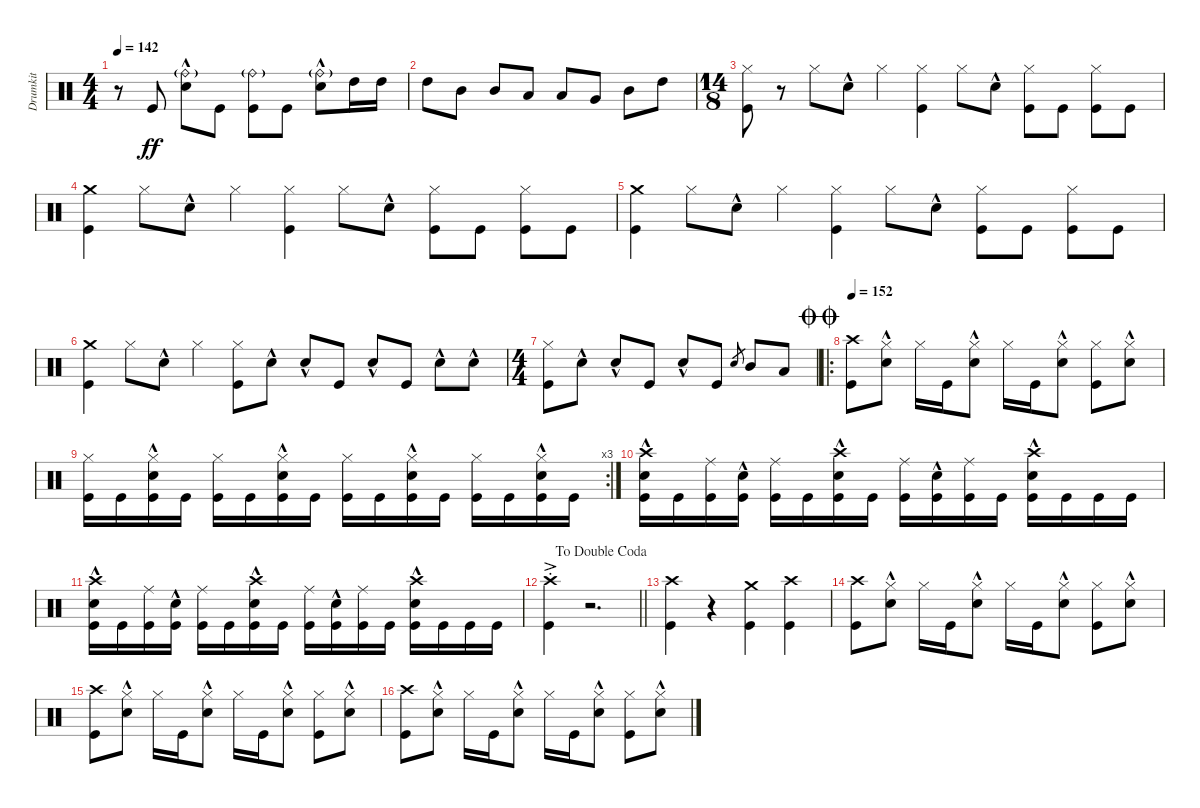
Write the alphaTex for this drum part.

\track ("Drumkit" "Drumkit") {instrument percussion}
\staff {score}
\articulation defaults
\ts (4 4)
\tempo 142
\clef neutral
\ks c
r.8{dy ff} "Kick (hit)".8 ("Snare (hit) 2"{hac} "Ride (bell)"{g}).8 "Kick (hit)".8 ("Kick (hit)" "Ride (bell)"{g}).8 "Kick (hit)".8 ("Snare (hit) 2"{hac} "Ride (bell)"{g}).8 "High Tom (hit)".16 "High Tom (hit)".16 |
"High Tom (hit)".8 "Mid Tom (hit)".8 "Mid Tom (hit)".8 "Low Tom (hit)".8 "Low Tom (hit)".8 "Very Low Tom (hit)".8 "Mid Tom (hit)".8 "High Tom (hit)".8 |
\ts (14 8)
("Hi-Hat (closed)" "Kick (hit)").8 r.8 "Hi-Hat (closed)".8 "Snare (hit) 2"{hac}.8 "Hi-Hat (closed)".4 ("Hi-Hat (closed)" "Kick (hit)").4 "Hi-Hat (closed)".8 "Snare (hit) 2"{hac}.8 ("Hi-Hat (closed)" "Kick (hit)").8 "Kick (hit)".8 ("Hi-Hat (closed)" "Kick (hit)").8 "Kick (hit)".8 |
("Crash medium (hit)" "Kick (hit)").4 "Hi-Hat (closed)".8 "Snare (hit) 2"{hac}.8 "Hi-Hat (closed)".4 ("Hi-Hat (closed)" "Kick (hit)").4 "Hi-Hat (closed)".8 "Snare (hit) 2"{hac}.8 ("Hi-Hat (closed)" "Kick (hit)").8 "Kick (hit)".8 ("Hi-Hat (closed)" "Kick (hit)").8 "Kick (hit)".8 |
("Crash medium (hit)" "Kick (hit)").4 "Hi-Hat (closed)".8 "Snare (hit) 2"{hac}.8 "Hi-Hat (closed)".4 ("Hi-Hat (closed)" "Kick (hit)").4 "Hi-Hat (closed)".8 "Snare (hit) 2"{hac}.8 ("Hi-Hat (closed)" "Kick (hit)").8 "Kick (hit)".8 ("Hi-Hat (closed)" "Kick (hit)").8 "Kick (hit)".8 |
("Crash medium (hit)" "Kick (hit)").4 "Hi-Hat (closed)".8 "Snare (hit) 2"{hac}.8 "Hi-Hat (closed)".4 ("Hi-Hat (closed)" "Kick (hit)").8 "Snare (hit) 2"{hac}.8 "Snare (hit) 2"{hac}.8 "Kick (hit)".8 "Snare (hit) 2"{hac}.8 "Kick (hit)".8 "Snare (hit) 2"{hac}.8 "Snare (hit) 2"{hac}.8 |
\ts (4 4)
("Hi-Hat (closed)" "Kick (hit)").8 "Snare (hit) 2"{hac}.8 "Snare (hit) 2"{hac}.8 "Kick (hit)".8 "Snare (hit) 2"{hac}.8 "Kick (hit)".8 "Snare (hit)".8{gr} "Mid Tom (hit)".8 "Low Tom (hit)".8 |
\ro
\jump doublecoda
\tempo 152
("Kick (hit)" "Crash high (hit)").8 ("Snare (hit) 2"{hac} "Hi-Hat (closed)").8 "Hi-Hat (closed)".16 "Kick (hit)".16 ("Snare (hit) 2"{hac} "Hi-Hat (closed)").8 "Hi-Hat (closed)".16 "Kick (hit)".16 ("Snare (hit) 2"{hac} "Hi-Hat (closed)").8 ("Kick (hit)" "Hi-Hat (closed)").8 ("Snare (hit) 2"{hac} "Hi-Hat (closed)").8 |
\rc 3
("Kick (hit)" "Hi-Hat (closed)").16 "Kick (hit)".16 ("Kick (hit)" "Hi-Hat (closed)" "Snare (hit) 2"{hac}).16 "Kick (hit)".16 ("Kick (hit)" "Hi-Hat (closed)").16 "Kick (hit)".16 ("Kick (hit)" "Hi-Hat (closed)" "Snare (hit) 2"{hac}).16 "Kick (hit)".16 ("Kick (hit)" "Hi-Hat (closed)").16 "Kick (hit)".16 ("Kick (hit)" "Hi-Hat (closed)" "Snare (hit) 2"{hac}).16 "Kick (hit)".16 ("Kick (hit)" "Hi-Hat (closed)").16 "Kick (hit)".16 ("Kick (hit)" "Hi-Hat (closed)" "Snare (hit) 2"{hac}).16 "Kick (hit)".16 |
("Kick (hit)" "Snare (hit) 2"{hac} "Crash high (hit)").16 "Kick (hit)".16 ("Kick (hit)" "Ride (middle)").16 ("Kick (hit)" "Snare (hit) 2"{hac}).16 ("Kick (hit)" "Ride (middle)").16 "Kick (hit)".16 ("Kick (hit)" "Crash high (hit)" "Snare (hit) 2"{hac}).16 "Kick (hit)".16 ("Kick (hit)" "Ride (middle)").16 ("Kick (hit)" "Snare (hit) 2"{hac}).16 ("Kick (hit)" "Ride (middle)").16 "Kick (hit)".16 ("Kick (hit)" "Snare (hit) 2"{hac} "Crash high (hit)").16 "Kick (hit)".16 "Kick (hit)".16 "Kick (hit)".16 |
("Kick (hit)" "Snare (hit) 2"{hac} "Crash high (hit)").16 "Kick (hit)".16 ("Kick (hit)" "Ride (middle)").16 ("Kick (hit)" "Snare (hit) 2"{hac}).16 ("Kick (hit)" "Ride (middle)").16 "Kick (hit)".16 ("Kick (hit)" "Crash high (hit)" "Snare (hit) 2"{hac}).16 "Kick (hit)".16 ("Kick (hit)" "Ride (middle)").16 ("Kick (hit)" "Snare (hit) 2"{hac}).16 ("Kick (hit)" "Ride (middle)").16 "Kick (hit)".16 ("Kick (hit)" "Snare (hit) 2"{hac} "Crash high (hit)").16 "Kick (hit)".16 "Kick (hit)".16 "Kick (hit)".16 |
\jump dadoublecoda
\barLineRight lightlight
("Kick (hit)" "Crash high (hit)"{ac st}).4 r.2{d} |
("Kick (hit)" "Crash high (hit)").4 r.4 ("Kick (hit)" "Crash medium (hit)").4 ("Kick (hit)" "Crash high (hit)").4 |
("Kick (hit)" "Crash high (hit)").8 ("Snare (hit) 2"{hac} "Hi-Hat (closed)").8 "Hi-Hat (closed)".16 "Kick (hit)".16 ("Snare (hit) 2"{hac} "Hi-Hat (closed)").8 "Hi-Hat (closed)".16 "Kick (hit)".16 ("Snare (hit) 2"{hac} "Hi-Hat (closed)").8 ("Kick (hit)" "Hi-Hat (closed)").8 ("Snare (hit) 2"{hac} "Hi-Hat (closed)").8 |
("Kick (hit)" "Crash high (hit)").8 ("Snare (hit) 2"{hac} "Hi-Hat (closed)").8 "Hi-Hat (closed)".16 "Kick (hit)".16 ("Snare (hit) 2"{hac} "Hi-Hat (closed)").8 "Hi-Hat (closed)".16 "Kick (hit)".16 ("Snare (hit) 2"{hac} "Hi-Hat (closed)").8 ("Kick (hit)" "Hi-Hat (closed)").8 ("Snare (hit) 2"{hac} "Hi-Hat (closed)").8 |
("Kick (hit)" "Crash high (hit)").8 ("Snare (hit) 2"{hac} "Hi-Hat (closed)").8 "Hi-Hat (closed)".16 "Kick (hit)".16 ("Snare (hit) 2"{hac} "Hi-Hat (closed)").8 "Hi-Hat (closed)".16 "Kick (hit)".16 ("Snare (hit) 2"{hac} "Hi-Hat (closed)").8 ("Kick (hit)" "Hi-Hat (closed)").8 ("Snare (hit) 2"{hac} "Hi-Hat (closed)").8
